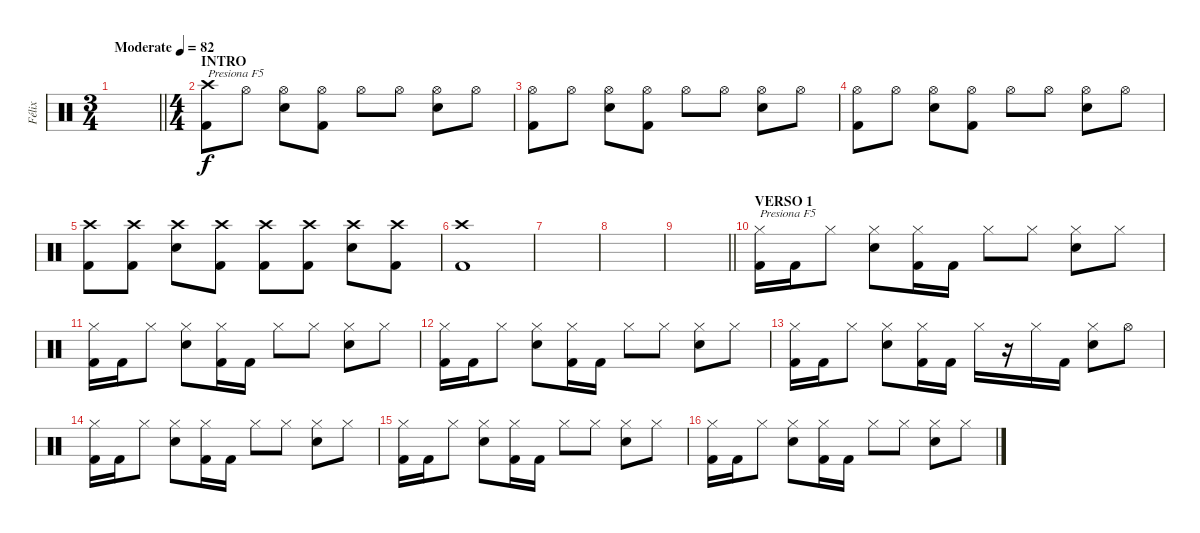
\track ("Félix" "Félix") {instrument percussion}
\staff {score}
\articulation defaults
\ts (3 4)
\tempo (82 "Moderate")
\clef neutral
\barLineRight lightlight
\ks c
|
\ts (4 4)
\section ("" "INTRO")
("Crash high (hit)" "Kick (hit) 2").8{txt "Presiona F5"} "Hi-Hat (open)".8 ("Hi-Hat (open)" "Snare (hit) 2").8 ("Hi-Hat (open)" "Kick (hit) 2").8 "Hi-Hat (open)".8 "Hi-Hat (open)".8 ("Hi-Hat (open)" "Snare (hit) 2").8 "Hi-Hat (open)".8 |
("Hi-Hat (open)" "Kick (hit) 2").8 "Hi-Hat (open)".8 ("Hi-Hat (open)" "Snare (hit) 2").8 ("Hi-Hat (open)" "Kick (hit) 2").8 "Hi-Hat (open)".8 "Hi-Hat (open)".8 ("Hi-Hat (open)" "Snare (hit) 2").8 "Hi-Hat (open)".8 |
("Hi-Hat (open)" "Kick (hit) 2").8 "Hi-Hat (open)".8 ("Hi-Hat (open)" "Snare (hit) 2").8 ("Hi-Hat (open)" "Kick (hit) 2").8 "Hi-Hat (open)".8 "Hi-Hat (open)".8 ("Hi-Hat (open)" "Snare (hit) 2").8 "Hi-Hat (open)".8 |
("Crash high (hit)" "Kick (hit) 2").8 ("Crash high (hit)" "Kick (hit) 2").8 ("Crash high (hit)" "Snare (hit) 2").8 ("Crash high (hit)" "Kick (hit) 2").8 ("Crash high (hit)" "Kick (hit) 2").8 ("Crash high (hit)" "Kick (hit) 2").8 ("Crash high (hit)" "Snare (hit) 2").8 ("Crash high (hit)" "Kick (hit) 2").8 |
("Crash high (hit)" "Kick (hit) 2").1 |
|
|
\barLineRight lightlight
|
\section ("" "VERSO 1")
("Hi-Hat (closed)" "Kick (hit) 2").16{txt "Presiona F5"} "Kick (hit) 2".16 "Hi-Hat (closed)".8 ("Hi-Hat (closed)" "Snare (hit) 2").8 ("Hi-Hat (closed)" "Kick (hit) 2").16 "Kick (hit) 2".16 "Hi-Hat (closed)".8 "Hi-Hat (closed)".8 ("Hi-Hat (closed)" "Snare (hit) 2").8 "Hi-Hat (closed)".8 |
("Hi-Hat (closed)" "Kick (hit) 2").16 "Kick (hit) 2".16 "Hi-Hat (closed)".8 ("Hi-Hat (closed)" "Snare (hit) 2").8 ("Hi-Hat (closed)" "Kick (hit) 2").16 "Kick (hit) 2".16 "Hi-Hat (closed)".8 "Hi-Hat (closed)".8 ("Hi-Hat (closed)" "Snare (hit) 2").8 "Hi-Hat (closed)".8 |
("Hi-Hat (closed)" "Kick (hit) 2").16 "Kick (hit) 2".16 "Hi-Hat (closed)".8 ("Hi-Hat (closed)" "Snare (hit) 2").8 ("Hi-Hat (closed)" "Kick (hit) 2").16 "Kick (hit) 2".16 "Hi-Hat (closed)".8 "Hi-Hat (closed)".8 ("Hi-Hat (closed)" "Snare (hit) 2").8 "Hi-Hat (closed)".8 |
("Hi-Hat (closed)" "Kick (hit) 2").16 "Kick (hit) 2".16 "Hi-Hat (closed)".8 ("Hi-Hat (closed)" "Snare (hit) 2").8 ("Hi-Hat (closed)" "Kick (hit) 2").16 "Kick (hit) 2".16 "Hi-Hat (closed)".16 r.16 "Hi-Hat (closed)".16 "Kick (hit) 2".16 ("Hi-Hat (closed)" "Snare (hit) 2").8 "Hi-Hat (open)".8 |
("Hi-Hat (closed)" "Kick (hit) 2").16 "Kick (hit) 2".16 "Hi-Hat (closed)".8 ("Hi-Hat (closed)" "Snare (hit) 2").8 ("Hi-Hat (closed)" "Kick (hit) 2").16 "Kick (hit) 2".16 "Hi-Hat (closed)".8 "Hi-Hat (closed)".8 ("Hi-Hat (closed)" "Snare (hit) 2").8 "Hi-Hat (closed)".8 |
("Hi-Hat (closed)" "Kick (hit) 2").16 "Kick (hit) 2".16 "Hi-Hat (closed)".8 ("Hi-Hat (closed)" "Snare (hit) 2").8 ("Hi-Hat (closed)" "Kick (hit) 2").16 "Kick (hit) 2".16 "Hi-Hat (closed)".8 "Hi-Hat (closed)".8 ("Hi-Hat (closed)" "Snare (hit) 2").8 "Hi-Hat (closed)".8 |
("Hi-Hat (closed)" "Kick (hit) 2").16 "Kick (hit) 2".16 "Hi-Hat (closed)".8 ("Hi-Hat (closed)" "Snare (hit) 2").8 ("Hi-Hat (closed)" "Kick (hit) 2").16 "Kick (hit) 2".16 "Hi-Hat (closed)".8 "Hi-Hat (closed)".8 ("Hi-Hat (closed)" "Snare (hit) 2").8 "Hi-Hat (closed)".8
